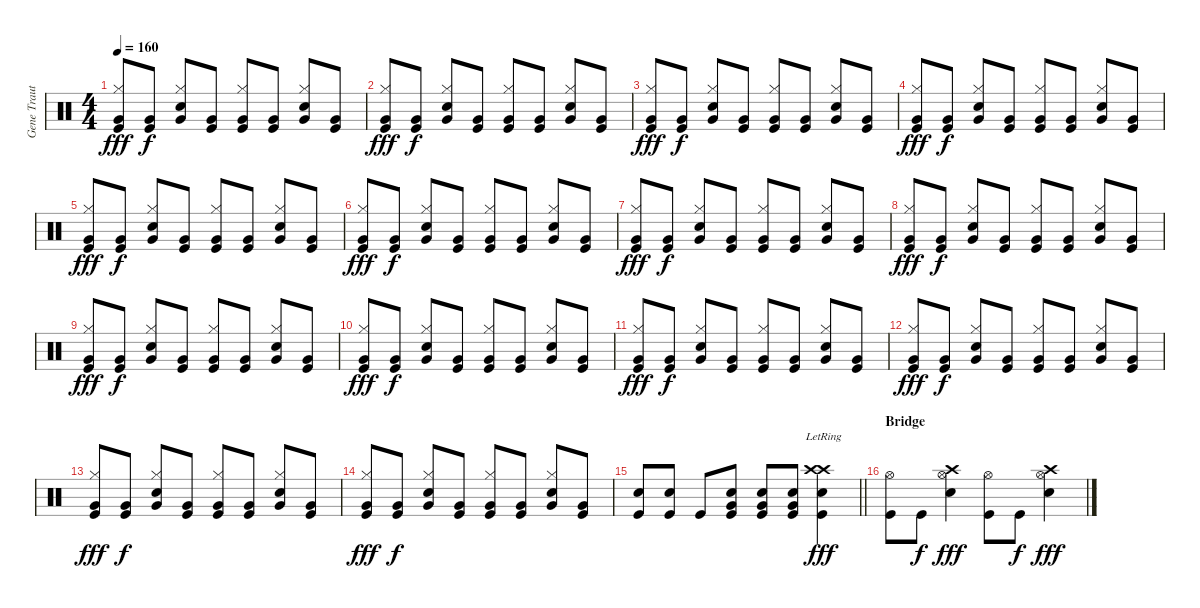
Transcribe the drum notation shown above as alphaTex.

\track ("Gene Trautmann" "Gene Traut") {instrument percussion}
\staff {score}
\articulation defaults
\ts (4 4)
\tempo 160
\clef neutral
\ks c
("Very Low Tom (hit)" "Hi-Hat (closed)" "Kick (hit)").8{dy fff} ("Very Low Tom (hit)" "Kick (hit)").8{dy f} ("Very Low Tom (hit)" "Hi-Hat (closed)" "Snare (hit) 2").8 ("Very Low Tom (hit)" "Kick (hit)").8 ("Very Low Tom (hit)" "Hi-Hat (closed)" "Kick (hit)").8 ("Very Low Tom (hit)" "Kick (hit)").8 ("Very Low Tom (hit)" "Hi-Hat (closed)" "Snare (hit) 2").8 ("Very Low Tom (hit)" "Kick (hit)").8 |
("Very Low Tom (hit)" "Hi-Hat (closed)" "Kick (hit)").8{dy fff} ("Very Low Tom (hit)" "Kick (hit)").8{dy f} ("Very Low Tom (hit)" "Hi-Hat (closed)" "Snare (hit) 2").8 ("Very Low Tom (hit)" "Kick (hit)").8 ("Very Low Tom (hit)" "Hi-Hat (closed)" "Kick (hit)").8 ("Very Low Tom (hit)" "Kick (hit)").8 ("Very Low Tom (hit)" "Hi-Hat (closed)" "Snare (hit) 2").8 ("Very Low Tom (hit)" "Kick (hit)").8 |
("Very Low Tom (hit)" "Hi-Hat (closed)" "Kick (hit)").8{dy fff} ("Very Low Tom (hit)" "Kick (hit)").8{dy f} ("Very Low Tom (hit)" "Hi-Hat (closed)" "Snare (hit) 2").8 ("Very Low Tom (hit)" "Kick (hit)").8 ("Very Low Tom (hit)" "Hi-Hat (closed)" "Kick (hit)").8 ("Very Low Tom (hit)" "Kick (hit)").8 ("Very Low Tom (hit)" "Hi-Hat (closed)" "Snare (hit) 2").8 ("Very Low Tom (hit)" "Kick (hit)").8 |
("Very Low Tom (hit)" "Hi-Hat (closed)" "Kick (hit)").8{dy fff} ("Very Low Tom (hit)" "Kick (hit)").8{dy f} ("Very Low Tom (hit)" "Hi-Hat (closed)" "Snare (hit) 2").8 ("Very Low Tom (hit)" "Kick (hit)").8 ("Very Low Tom (hit)" "Hi-Hat (closed)" "Kick (hit)").8 ("Very Low Tom (hit)" "Kick (hit)").8 ("Very Low Tom (hit)" "Hi-Hat (closed)" "Snare (hit) 2").8 ("Very Low Tom (hit)" "Kick (hit)").8 |
("Very Low Tom (hit)" "Hi-Hat (closed)" "Kick (hit)").8{dy fff} ("Very Low Tom (hit)" "Kick (hit)").8{dy f} ("Very Low Tom (hit)" "Hi-Hat (closed)" "Snare (hit) 2").8 ("Very Low Tom (hit)" "Kick (hit)").8 ("Very Low Tom (hit)" "Hi-Hat (closed)" "Kick (hit)").8 ("Very Low Tom (hit)" "Kick (hit)").8 ("Very Low Tom (hit)" "Hi-Hat (closed)" "Snare (hit) 2").8 ("Very Low Tom (hit)" "Kick (hit)").8 |
("Very Low Tom (hit)" "Hi-Hat (closed)" "Kick (hit)").8{dy fff} ("Very Low Tom (hit)" "Kick (hit)").8{dy f} ("Very Low Tom (hit)" "Hi-Hat (closed)" "Snare (hit) 2").8 ("Very Low Tom (hit)" "Kick (hit)").8 ("Very Low Tom (hit)" "Hi-Hat (closed)" "Kick (hit)").8 ("Very Low Tom (hit)" "Kick (hit)").8 ("Very Low Tom (hit)" "Hi-Hat (closed)" "Snare (hit) 2").8 ("Very Low Tom (hit)" "Kick (hit)").8 |
("Very Low Tom (hit)" "Hi-Hat (closed)" "Kick (hit)").8{dy fff} ("Very Low Tom (hit)" "Kick (hit)").8{dy f} ("Very Low Tom (hit)" "Hi-Hat (closed)" "Snare (hit) 2").8 ("Very Low Tom (hit)" "Kick (hit)").8 ("Very Low Tom (hit)" "Hi-Hat (closed)" "Kick (hit)").8 ("Very Low Tom (hit)" "Kick (hit)").8 ("Very Low Tom (hit)" "Hi-Hat (closed)" "Snare (hit) 2").8 ("Very Low Tom (hit)" "Kick (hit)").8 |
("Very Low Tom (hit)" "Hi-Hat (closed)" "Kick (hit)").8{dy fff} ("Very Low Tom (hit)" "Kick (hit)").8{dy f} ("Very Low Tom (hit)" "Hi-Hat (closed)" "Snare (hit) 2").8 ("Very Low Tom (hit)" "Kick (hit)").8 ("Very Low Tom (hit)" "Hi-Hat (closed)" "Kick (hit)").8 ("Very Low Tom (hit)" "Kick (hit)").8 ("Very Low Tom (hit)" "Hi-Hat (closed)" "Snare (hit) 2").8 ("Very Low Tom (hit)" "Kick (hit)").8 |
("Very Low Tom (hit)" "Hi-Hat (closed)" "Kick (hit)").8{dy fff} ("Very Low Tom (hit)" "Kick (hit)").8{dy f} ("Very Low Tom (hit)" "Hi-Hat (closed)" "Snare (hit) 2").8 ("Very Low Tom (hit)" "Kick (hit)").8 ("Very Low Tom (hit)" "Hi-Hat (closed)" "Kick (hit)").8 ("Very Low Tom (hit)" "Kick (hit)").8 ("Very Low Tom (hit)" "Hi-Hat (closed)" "Snare (hit) 2").8 ("Very Low Tom (hit)" "Kick (hit)").8 |
("Very Low Tom (hit)" "Hi-Hat (closed)" "Kick (hit)").8{dy fff} ("Very Low Tom (hit)" "Kick (hit)").8{dy f} ("Very Low Tom (hit)" "Hi-Hat (closed)" "Snare (hit) 2").8 ("Very Low Tom (hit)" "Kick (hit)").8 ("Very Low Tom (hit)" "Hi-Hat (closed)" "Kick (hit)").8 ("Very Low Tom (hit)" "Kick (hit)").8 ("Very Low Tom (hit)" "Hi-Hat (closed)" "Snare (hit) 2").8 ("Very Low Tom (hit)" "Kick (hit)").8 |
("Very Low Tom (hit)" "Hi-Hat (closed)" "Kick (hit)").8{dy fff} ("Very Low Tom (hit)" "Kick (hit)").8{dy f} ("Very Low Tom (hit)" "Hi-Hat (closed)" "Snare (hit) 2").8 ("Very Low Tom (hit)" "Kick (hit)").8 ("Very Low Tom (hit)" "Hi-Hat (closed)" "Kick (hit)").8 ("Very Low Tom (hit)" "Kick (hit)").8 ("Very Low Tom (hit)" "Hi-Hat (closed)" "Snare (hit) 2").8 ("Very Low Tom (hit)" "Kick (hit)").8 |
("Very Low Tom (hit)" "Hi-Hat (closed)" "Kick (hit)").8{dy fff} ("Very Low Tom (hit)" "Kick (hit)").8{dy f} ("Very Low Tom (hit)" "Hi-Hat (closed)" "Snare (hit) 2").8 ("Very Low Tom (hit)" "Kick (hit)").8 ("Very Low Tom (hit)" "Hi-Hat (closed)" "Kick (hit)").8 ("Very Low Tom (hit)" "Kick (hit)").8 ("Very Low Tom (hit)" "Hi-Hat (closed)" "Snare (hit) 2").8 ("Very Low Tom (hit)" "Kick (hit)").8 |
("Very Low Tom (hit)" "Hi-Hat (closed)" "Kick (hit)").8{dy fff} ("Very Low Tom (hit)" "Kick (hit)").8{dy f} ("Very Low Tom (hit)" "Hi-Hat (closed)" "Snare (hit) 2").8 ("Very Low Tom (hit)" "Kick (hit)").8 ("Very Low Tom (hit)" "Hi-Hat (closed)" "Kick (hit)").8 ("Very Low Tom (hit)" "Kick (hit)").8 ("Very Low Tom (hit)" "Hi-Hat (closed)" "Snare (hit) 2").8 ("Very Low Tom (hit)" "Kick (hit)").8 |
("Very Low Tom (hit)" "Hi-Hat (closed)" "Kick (hit)").8{dy fff} ("Very Low Tom (hit)" "Kick (hit)").8{dy f} ("Very Low Tom (hit)" "Hi-Hat (closed)" "Snare (hit) 2").8 ("Very Low Tom (hit)" "Kick (hit)").8 ("Very Low Tom (hit)" "Hi-Hat (closed)" "Kick (hit)").8 ("Very Low Tom (hit)" "Kick (hit)").8 ("Very Low Tom (hit)" "Hi-Hat (closed)" "Snare (hit) 2").8 ("Very Low Tom (hit)" "Kick (hit)").8 |
\barLineRight lightlight
("Snare (hit) 2" "Kick (hit)").8 ("Snare (hit) 2" "Kick (hit)").8 "Kick (hit)".8 ("Very Low Tom (hit)" "Snare (hit) 2" "Kick (hit)").8 ("Very Low Tom (hit)" "Snare (hit) 2" "Kick (hit)").8 ("Very Low Tom (hit)" "Snare (hit) 2" "Kick (hit)").8 ("Crash high (hit)"{lr} "Crash high (hit)"{lr} "Snare (hit) 2" "Kick (hit)").4{dy fff} |
\section ("" "Bridge")
("Hi-Hat (open)" "Kick (hit)").8 "Kick (hit)".8{dy f} ("Crash high (hit)" "Hi-Hat (open)" "Snare (hit) 2").4{dy fff} ("Hi-Hat (open)" "Kick (hit)").8 "Kick (hit)".8{dy f} ("Crash high (hit)" "Hi-Hat (open)" "Snare (hit) 2").4{dy fff}
